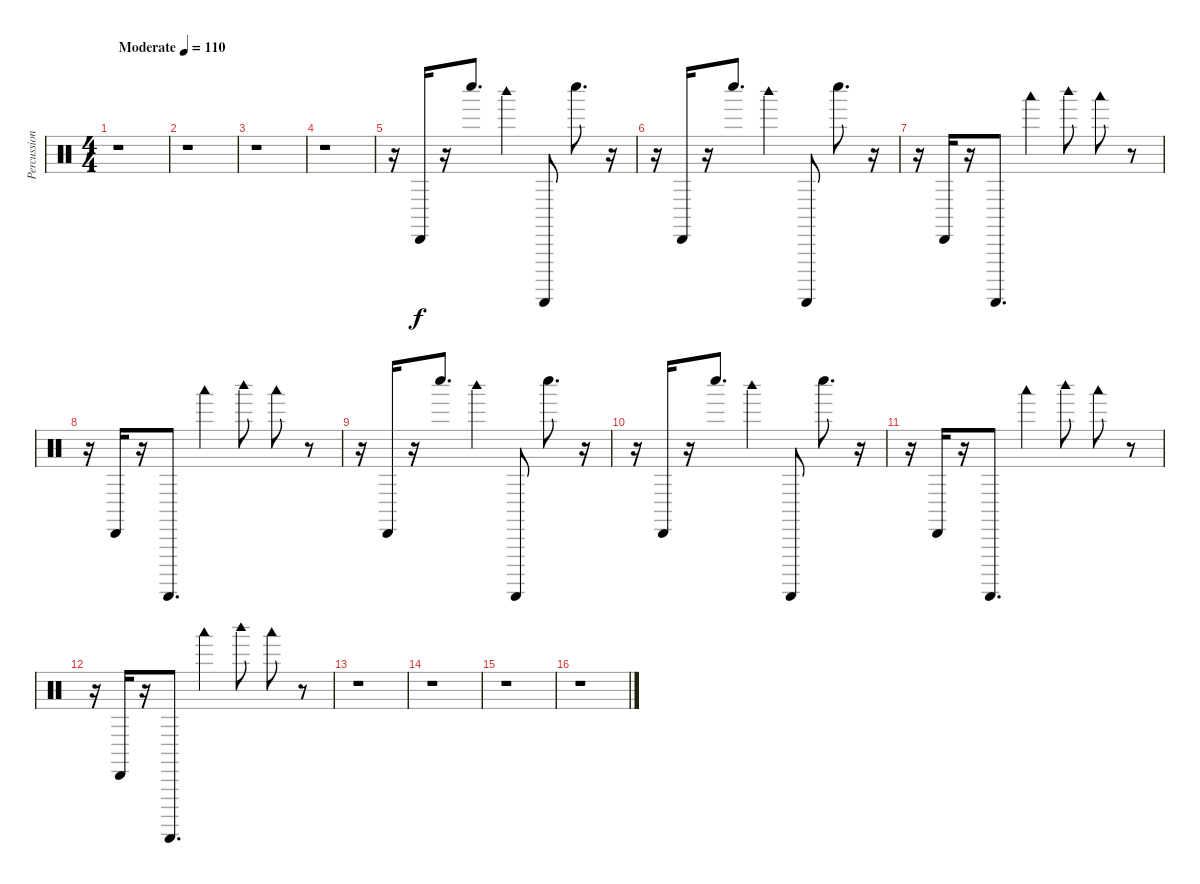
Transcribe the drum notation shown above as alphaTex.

\track ("Percussion" "Percussion") {instrument percussion}
\staff {score}
\articulation defaults
\ts (4 4)
\tempo (110 "Moderate")
\clef neutral
\ks c
r.1{dy f} |
r.1 |
r.1 |
r.1 |
r.16 "Cabasa (hit)".16 r.16 "Whistle low (hit)".8{d} "Woodblock high (hit)".4 "Guiro (scrap-return)".8 "Whistle low (hit)".8{d} r.16 |
r.16 "Cabasa (hit)".16 r.16 "Whistle low (hit)".8{d} "Woodblock high (hit)".4 "Guiro (scrap-return)".8 "Whistle low (hit)".8{d} r.16 |
r.16 "Cabasa (hit)".16 r.16 "Guiro (scrap-return)".8{d} "Woodblock low (hit)".4 "Woodblock high (hit)".8 "Woodblock low (hit)".8 r.8 |
r.16 "Cabasa (hit)".16 r.16 "Guiro (scrap-return)".8{d} "Woodblock low (hit)".4 "Woodblock high (hit)".8 "Woodblock low (hit)".8 r.8 |
r.16 "Cabasa (hit)".16 r.16 "Whistle low (hit)".8{d} "Woodblock high (hit)".4 "Guiro (scrap-return)".8 "Whistle low (hit)".8{d} r.16 |
r.16 "Cabasa (hit)".16 r.16 "Whistle low (hit)".8{d} "Woodblock high (hit)".4 "Guiro (scrap-return)".8 "Whistle low (hit)".8{d} r.16 |
r.16 "Cabasa (hit)".16 r.16 "Guiro (scrap-return)".8{d} "Woodblock low (hit)".4 "Woodblock high (hit)".8 "Woodblock low (hit)".8 r.8 |
r.16 "Cabasa (hit)".16 r.16 "Guiro (scrap-return)".8{d} "Woodblock low (hit)".4 "Woodblock high (hit)".8 "Woodblock low (hit)".8 r.8 |
r.1 |
r.1 |
r.1 |
r.1
